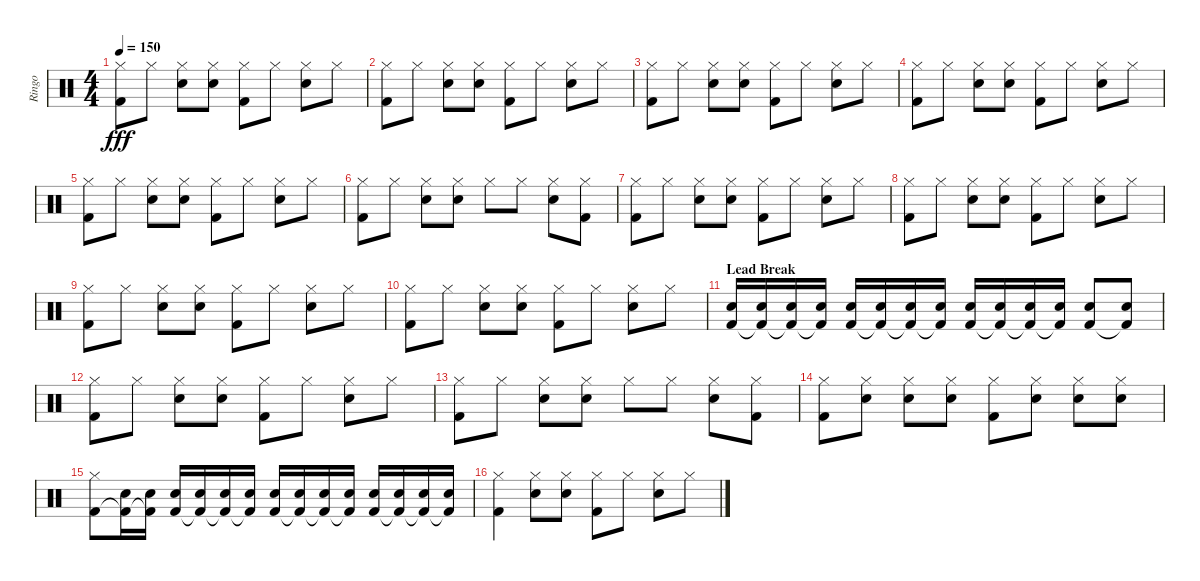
\track ("Ringo" "Ringo") {instrument percussion}
\staff {score}
\articulation defaults
\ts (4 4)
\tempo 150
\clef neutral
\ks c
("Hi-Hat (closed)" "Kick (hit) 2").8{dy fff} "Hi-Hat (closed)".8 ("Hi-Hat (closed)" "Snare (hit) 2").8 ("Hi-Hat (closed)" "Snare (hit) 2").8 ("Hi-Hat (closed)" "Kick (hit) 2").8 "Hi-Hat (closed)".8 ("Hi-Hat (closed)" "Snare (hit) 2").8 "Hi-Hat (closed)".8 |
("Hi-Hat (closed)" "Kick (hit) 2").8 "Hi-Hat (closed)".8 ("Hi-Hat (closed)" "Snare (hit) 2").8 ("Hi-Hat (closed)" "Snare (hit) 2").8 ("Hi-Hat (closed)" "Kick (hit) 2").8 "Hi-Hat (closed)".8 ("Hi-Hat (closed)" "Snare (hit) 2").8 "Hi-Hat (closed)".8 |
("Hi-Hat (closed)" "Kick (hit) 2").8 "Hi-Hat (closed)".8 ("Hi-Hat (closed)" "Snare (hit) 2").8 ("Hi-Hat (closed)" "Snare (hit) 2").8 ("Hi-Hat (closed)" "Kick (hit) 2").8 "Hi-Hat (closed)".8 ("Hi-Hat (closed)" "Snare (hit) 2").8 "Hi-Hat (closed)".8 |
("Hi-Hat (closed)" "Kick (hit) 2").8 "Hi-Hat (closed)".8 ("Hi-Hat (closed)" "Snare (hit) 2").8 ("Hi-Hat (closed)" "Snare (hit) 2").8 ("Hi-Hat (closed)" "Kick (hit) 2").8 "Hi-Hat (closed)".8 ("Hi-Hat (closed)" "Snare (hit) 2").8 "Hi-Hat (closed)".8 |
("Hi-Hat (closed)" "Kick (hit) 2").8 "Hi-Hat (closed)".8 ("Hi-Hat (closed)" "Snare (hit) 2").8 ("Hi-Hat (closed)" "Snare (hit) 2").8 ("Hi-Hat (closed)" "Kick (hit) 2").8 "Hi-Hat (closed)".8 ("Hi-Hat (closed)" "Snare (hit) 2").8 "Hi-Hat (closed)".8 |
("Hi-Hat (closed)" "Kick (hit) 2").8 "Hi-Hat (closed)".8 ("Hi-Hat (closed)" "Snare (hit) 2").8 ("Hi-Hat (closed)" "Snare (hit) 2").8 "Hi-Hat (closed)".8 "Hi-Hat (closed)".8 ("Hi-Hat (closed)" "Snare (hit) 2").8 ("Hi-Hat (closed)" "Kick (hit) 2").8 |
("Hi-Hat (closed)" "Kick (hit) 2").8 "Hi-Hat (closed)".8 ("Hi-Hat (closed)" "Snare (hit) 2").8 ("Hi-Hat (closed)" "Snare (hit) 2").8 ("Hi-Hat (closed)" "Kick (hit) 2").8 "Hi-Hat (closed)".8 ("Hi-Hat (closed)" "Snare (hit) 2").8 "Hi-Hat (closed)".8 |
("Hi-Hat (closed)" "Kick (hit) 2").8 "Hi-Hat (closed)".8 ("Hi-Hat (closed)" "Snare (hit) 2").8 ("Hi-Hat (closed)" "Snare (hit) 2").8 ("Hi-Hat (closed)" "Kick (hit) 2").8 "Hi-Hat (closed)".8 ("Hi-Hat (closed)" "Snare (hit) 2").8 "Hi-Hat (closed)".8 |
("Hi-Hat (closed)" "Kick (hit) 2").8 "Hi-Hat (closed)".8 ("Hi-Hat (closed)" "Snare (hit) 2").8 ("Hi-Hat (closed)" "Snare (hit) 2").8 ("Hi-Hat (closed)" "Kick (hit) 2").8 "Hi-Hat (closed)".8 ("Hi-Hat (closed)" "Snare (hit) 2").8 "Hi-Hat (closed)".8 |
("Hi-Hat (closed)" "Kick (hit) 2").8 "Hi-Hat (closed)".8 ("Hi-Hat (closed)" "Snare (hit) 2").8 ("Hi-Hat (closed)" "Snare (hit) 2").8 ("Hi-Hat (closed)" "Kick (hit) 2").8 "Hi-Hat (closed)".8 ("Hi-Hat (closed)" "Snare (hit) 2").8 "Hi-Hat (closed)".8 |
\section ("" "Lead Break")
("Snare (hit) 2" "Kick (hit) 2").16 ("Snare (hit) 2" "Kick (hit) 2"{t}).16 ("Snare (hit) 2" "Kick (hit) 2"{t}).16 ("Snare (hit) 2" "Kick (hit) 2"{t}).16 ("Snare (hit) 2" "Kick (hit) 2").16 ("Snare (hit) 2" "Kick (hit) 2"{t}).16 ("Snare (hit) 2" "Kick (hit) 2"{t}).16 ("Snare (hit) 2" "Kick (hit) 2"{t}).16 ("Snare (hit) 2" "Kick (hit) 2").16 ("Snare (hit) 2" "Kick (hit) 2"{t}).16 ("Snare (hit) 2" "Kick (hit) 2"{t}).16 ("Snare (hit) 2" "Kick (hit) 2"{t}).16 ("Snare (hit) 2" "Kick (hit) 2").8 ("Snare (hit) 2" "Kick (hit) 2"{t}).8 |
("Hi-Hat (closed)" "Kick (hit) 2").8 "Hi-Hat (closed)".8 ("Hi-Hat (closed)" "Snare (hit) 2").8 ("Hi-Hat (closed)" "Snare (hit) 2").8 ("Hi-Hat (closed)" "Kick (hit) 2").8 "Hi-Hat (closed)".8 ("Hi-Hat (closed)" "Snare (hit) 2").8 "Hi-Hat (closed)".8 |
("Hi-Hat (closed)" "Kick (hit) 2").8 "Hi-Hat (closed)".8 ("Hi-Hat (closed)" "Snare (hit) 2").8 ("Hi-Hat (closed)" "Snare (hit) 2").8 "Hi-Hat (closed)".8 "Hi-Hat (closed)".8 ("Hi-Hat (closed)" "Snare (hit) 2").8 ("Hi-Hat (closed)" "Kick (hit) 2").8 |
("Hi-Hat (closed)" "Kick (hit) 2").8 ("Hi-Hat (closed)" "Snare (hit) 2").8 ("Hi-Hat (closed)" "Snare (hit) 2").8 ("Hi-Hat (closed)" "Snare (hit) 2").8 ("Hi-Hat (closed)" "Kick (hit) 2").8 ("Hi-Hat (closed)" "Snare (hit) 2").8 ("Hi-Hat (closed)" "Snare (hit) 2").8 ("Hi-Hat (closed)" "Snare (hit) 2").8 |
("Hi-Hat (closed)" "Kick (hit) 2").8 ("Snare (hit) 2" "Kick (hit) 2"{t}).16 ("Snare (hit) 2" "Kick (hit) 2"{t}).16 ("Snare (hit) 2" "Kick (hit) 2").16 ("Snare (hit) 2" "Kick (hit) 2"{t}).16 ("Snare (hit) 2" "Kick (hit) 2"{t}).16 ("Snare (hit) 2" "Kick (hit) 2"{t}).16 ("Snare (hit) 2" "Kick (hit) 2").16 ("Snare (hit) 2" "Kick (hit) 2"{t}).16 ("Snare (hit) 2" "Kick (hit) 2"{t}).16 ("Snare (hit) 2" "Kick (hit) 2"{t}).16 ("Snare (hit) 2" "Kick (hit) 2").16 ("Snare (hit) 2" "Kick (hit) 2"{t}).16 ("Snare (hit) 2" "Kick (hit) 2"{t}).16 ("Snare (hit) 2" "Kick (hit) 2"{t}).16 |
("Hi-Hat (closed)" "Kick (hit) 2").4 ("Hi-Hat (closed)" "Snare (hit) 2").8 ("Hi-Hat (closed)" "Snare (hit) 2").8 ("Hi-Hat (closed)" "Kick (hit) 2").8 "Hi-Hat (closed)".8 ("Hi-Hat (closed)" "Snare (hit) 2").8 "Hi-Hat (closed)".8
